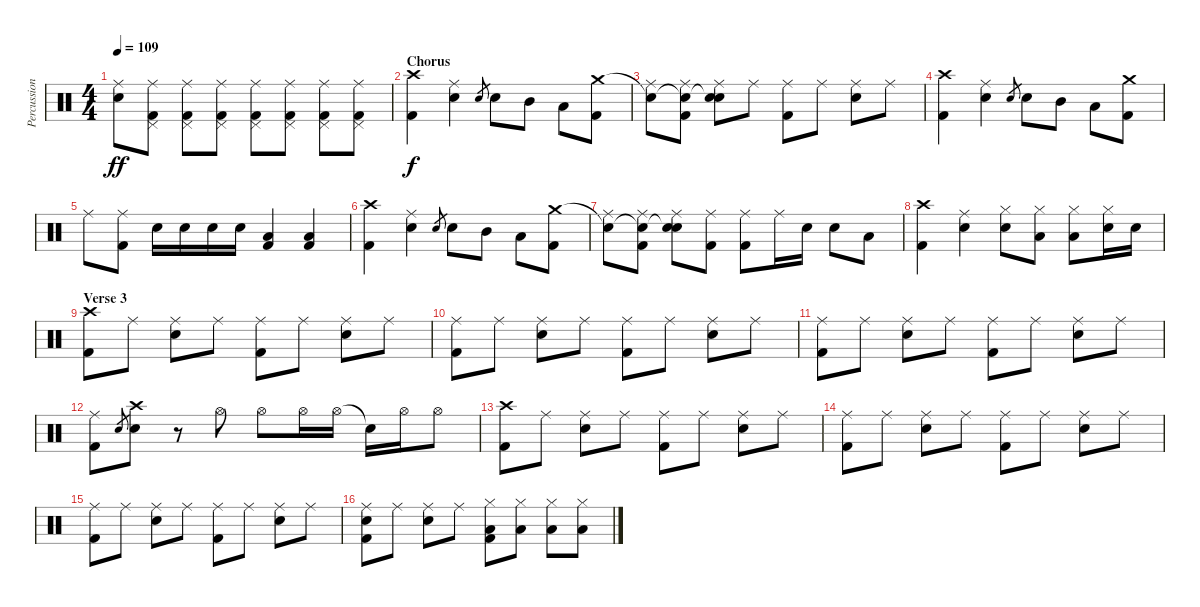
\track ("Percussion" "Percussion") {instrument percussion}
\staff {score}
\articulation defaults
\ts (4 4)
\tempo 109
\clef neutral
\ks c
("Ride (middle)" "Electric Snare (hit)").8{dy ff} ("Pedal Hi-Hat (hit)" "Ride (middle)" "Kick (hit) 2").8 ("Pedal Hi-Hat (hit)" "Ride (middle)" "Kick (hit) 2").8 ("Pedal Hi-Hat (hit)" "Ride (middle)" "Kick (hit) 2").8 ("Pedal Hi-Hat (hit)" "Ride (middle)" "Kick (hit) 2").8 ("Pedal Hi-Hat (hit)" "Ride (middle)" "Kick (hit) 2").8 ("Pedal Hi-Hat (hit)" "Ride (middle)" "Kick (hit) 2").8 ("Pedal Hi-Hat (hit)" "Ride (middle)" "Kick (hit) 2").8 |
\section ("" "Chorus")
("Crash high (hit)" "Kick (hit) 2").4{dy f} ("Ride (middle)" "Electric Snare (hit)").4 "Electric Snare (hit)".8{gr} "Electric Snare (hit)".8 "Mid Tom (hit)".8 "Low Tom (hit)".8 ("Crash medium (hit)" "Kick (hit) 2").8 |
("Snare (hit)"{t} "Ride (middle)").8 ("Snare (hit)"{t} "Ride (middle)" "Kick (hit) 2").8 ("Snare (hit)"{t} "Ride (middle)" "Electric Snare (hit)").8 "Ride (middle)".8 ("Ride (middle)" "Kick (hit) 2").8 "Ride (middle)".8 ("Ride (middle)" "Electric Snare (hit)").8 "Ride (middle)".8 |
("Crash high (hit)" "Kick (hit) 2").4 ("Ride (middle)" "Electric Snare (hit)").4 "Electric Snare (hit)".8{gr} "Electric Snare (hit)".8 "Mid Tom (hit)".8 "Low Tom (hit)".8 ("Crash medium (hit)" "Kick (hit) 2").8 |
"Ride (middle)".8 ("Ride (middle)" "Kick (hit) 2").8 "Electric Snare (hit)".16 "Electric Snare (hit)".16 "Electric Snare (hit)".16 "Electric Snare (hit)".16 ("Low Tom (hit)" "Kick (hit) 2").4 ("Low Tom (hit)" "Kick (hit) 2").4 |
("Crash high (hit)" "Kick (hit) 2").4 ("Ride (middle)" "Electric Snare (hit)").4 "Electric Snare (hit)".8{gr} "Electric Snare (hit)".8 "Mid Tom (hit)".8 "Low Tom (hit)".8 ("Crash medium (hit)" "Kick (hit) 2").8 |
("Snare (hit)"{t} "Ride (middle)").8 ("Snare (hit)"{t} "Ride (middle)" "Kick (hit) 2").8 ("Snare (hit)"{t} "Ride (middle)" "Electric Snare (hit)").8 ("Ride (middle)" "Kick (hit) 2").8 ("Ride (middle)" "Kick (hit) 2").8 "Ride (middle)".16 "Electric Snare (hit)".16 "Electric Snare (hit)".8 "Low Tom (hit)".8 |
("Crash high (hit)" "Kick (hit) 2").4 ("Ride (middle)" "Electric Snare (hit)").4 ("Hi-Hat (closed)" "Electric Snare (hit)").8 ("Hi-Hat (closed)" "Low Tom (hit)").8 ("Hi-Hat (closed)" "Low Tom (hit)").8 ("Hi-Hat (closed)" "Electric Snare (hit)").16 "Electric Snare (hit)".16 |
\section ("" "Verse 3")
("Crash high (hit)" "Kick (hit) 2").8 "Ride (middle)".8 ("Ride (middle)" "Electric Snare (hit)").8 "Ride (middle)".8 ("Ride (middle)" "Kick (hit) 2").8 "Ride (middle)".8 ("Ride (middle)" "Electric Snare (hit)").8 "Ride (middle)".8 |
("Ride (middle)" "Kick (hit) 2").8 "Ride (middle)".8 ("Ride (middle)" "Electric Snare (hit)").8 "Ride (middle)".8 ("Ride (middle)" "Kick (hit) 2").8 "Ride (middle)".8 ("Ride (middle)" "Electric Snare (hit)").8 "Ride (middle)".8 |
("Ride (middle)" "Kick (hit) 2").8 "Ride (middle)".8 ("Ride (middle)" "Electric Snare (hit)").8 "Ride (middle)".8 ("Ride (middle)" "Kick (hit) 2").8 "Ride (middle)".8 ("Ride (middle)" "Electric Snare (hit)").8 "Ride (middle)".8 |
("Ride (middle)" "Kick (hit) 2").8 "Electric Snare (hit)".8{gr} ("Crash high (hit)" "Electric Snare (hit)").8 r.8 "Hi-Hat (open)".8{balance 16} "Hi-Hat (open)".8 "Hi-Hat (open)".16 "Hi-Hat (open)".16 "Snare (hit)"{t}.16 "Hi-Hat (open)".16 "Hi-Hat (open)".8 |
("Crash high (hit)" "Kick (hit) 2").8{balance 8} "Ride (middle)".8 ("Ride (middle)" "Electric Snare (hit)").8 "Ride (middle)".8 ("Ride (middle)" "Kick (hit) 2").8 "Ride (middle)".8 ("Ride (middle)" "Electric Snare (hit)").8 "Ride (middle)".8 |
("Ride (middle)" "Kick (hit) 2").8 "Ride (middle)".8 ("Ride (middle)" "Electric Snare (hit)").8 "Ride (middle)".8 ("Ride (middle)" "Kick (hit) 2").8 "Ride (middle)".8 ("Ride (middle)" "Electric Snare (hit)").8 "Ride (middle)".8 |
("Ride (middle)" "Kick (hit) 2").8 "Ride (middle)".8 ("Ride (middle)" "Electric Snare (hit)").8 "Ride (middle)".8 ("Ride (middle)" "Kick (hit) 2").8 "Ride (middle)".8 ("Ride (middle)" "Electric Snare (hit)").8 "Ride (middle)".8 |
("Ride (middle)" "Electric Snare (hit)" "Kick (hit) 2").8 "Ride (middle)".8 ("Ride (middle)" "Electric Snare (hit)").8 "Ride (middle)".8 ("Hi-Hat (closed)" "Low Tom (hit)" "Kick (hit) 2").8 ("Hi-Hat (closed)" "Low Tom (hit)").8 ("Hi-Hat (closed)" "Low Tom (hit)").8 ("Hi-Hat (closed)" "Low Tom (hit)").8
